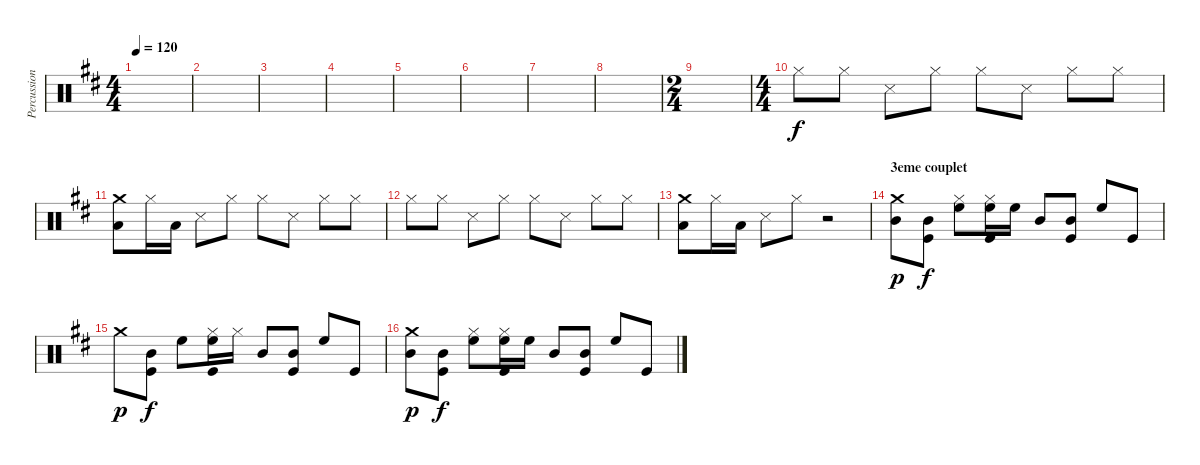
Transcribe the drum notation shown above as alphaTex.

\track ("Percussions" "Percussion") {instrument percussion}
\staff {score}
\articulation defaults
\ts (4 4)
\tempo 120
\clef neutral
\ks d
|
|
|
|
|
|
|
|
\ts (2 4)
|
\ts (4 4)
"Hi-Hat (closed)".8 "Hi-Hat (closed)".8 "Snare (side stick) 3".8 "Hi-Hat (closed)".8 "Hi-Hat (closed)".8 "Snare (side stick) 3".8 "Hi-Hat (closed)".8 "Hi-Hat (closed)".8 |
("Crash medium (hit)" "Low Floor Tom (hit)").8 "Hi-Hat (closed)".16 "Low Floor Tom (hit)".16 "Snare (side stick) 3".8 "Hi-Hat (closed)".8 "Hi-Hat (closed)".8 "Snare (side stick) 3".8 "Hi-Hat (closed)".8 "Hi-Hat (closed)".8 |
"Hi-Hat (closed)".8 "Hi-Hat (closed)".8 "Snare (side stick) 3".8 "Hi-Hat (closed)".8 "Hi-Hat (closed)".8 "Snare (side stick) 3".8 "Hi-Hat (closed)".8 "Hi-Hat (closed)".8 |
("Crash medium (hit)" "Low Floor Tom (hit)").8 "Hi-Hat (closed)".16 "Low Floor Tom (hit)".16 "Snare (side stick) 3".8 "Hi-Hat (closed)".8 r.2 |
\section ("" "3eme couplet")
("Crash medium (hit)" "Mid Tom (hit)").8{dy p} ("Mid Tom (hit)" "Kick (hit)").8{dy f} ("Hi-Hat (closed)" "High Floor Tom (hit)").8 ("Hi-Hat (closed)" "High Floor Tom (hit)" "Kick (hit)").16 "High Floor Tom (hit)".16 "Mid Tom (hit)".8 ("Mid Tom (hit)" "Kick (hit)").8 "High Floor Tom (hit)".8 "Kick (hit)".8 |
"Crash medium (hit)".8{dy p} ("Mid Tom (hit)" "Kick (hit)").8{dy f} "High Floor Tom (hit)".8 ("Hi-Hat (closed)" "High Floor Tom (hit)" "Kick (hit)").16 "Hi-Hat (closed)".16 "Mid Tom (hit)".8 ("Mid Tom (hit)" "Kick (hit)").8 "High Floor Tom (hit)".8 "Kick (hit)".8 |
("Crash medium (hit)" "Mid Tom (hit)").8{dy p} ("Mid Tom (hit)" "Kick (hit)").8{dy f} ("Hi-Hat (closed)" "High Floor Tom (hit)").8 ("Hi-Hat (closed)" "High Floor Tom (hit)" "Kick (hit)").16 "High Floor Tom (hit)".16 "Mid Tom (hit)".8 ("Mid Tom (hit)" "Kick (hit)").8 "High Floor Tom (hit)".8 "Kick (hit)".8
